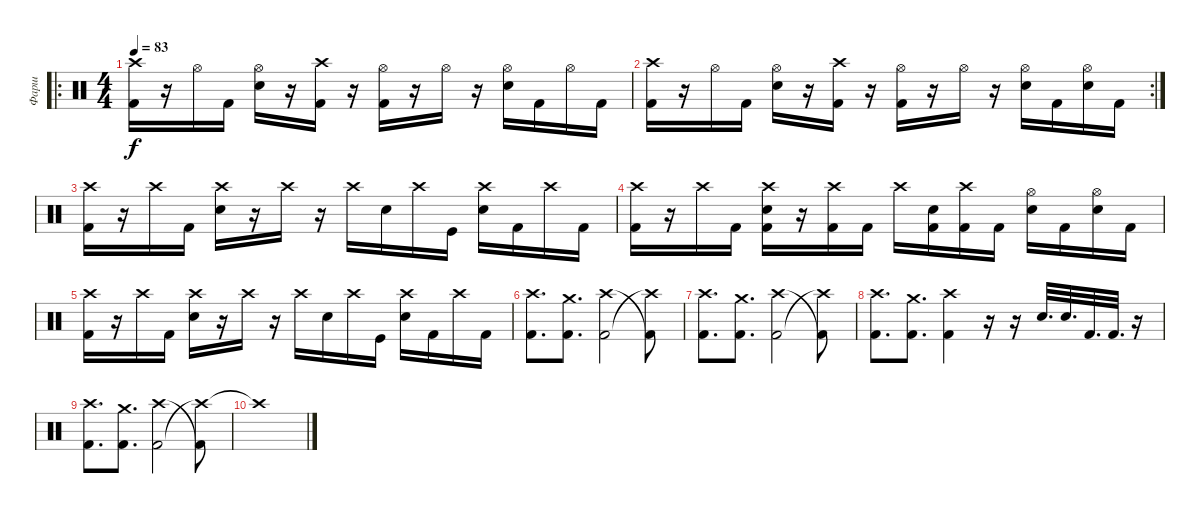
\track ("Фарш" "Фарш") {instrument percussion}
\staff {score}
\articulation defaults
\ro
\ts (4 4)
\tempo 83
\clef neutral
\ks c
("Crash high (hit)" "Kick (hit) 2").16{dy f} r.16 "Hi-Hat (open)".16 "Kick (hit) 2".16 ("Hi-Hat (open)" "Electric Snare (hit)").16 r.16 ("Crash high (hit)" "Kick (hit) 2").16 r.16 ("Hi-Hat (open)" "Kick (hit) 2").16 r.16 "Hi-Hat (open)".16 r.16 ("Hi-Hat (open)" "Electric Snare (hit)").16 "Kick (hit) 2".16 "Hi-Hat (open)".16 "Kick (hit) 2".16 |
\rc 2
("Crash high (hit)" "Kick (hit) 2").16 r.16 "Hi-Hat (open)".16 "Kick (hit) 2".16 ("Hi-Hat (open)" "Electric Snare (hit)").16 r.16 ("Crash high (hit)" "Kick (hit) 2").16 r.16 ("Hi-Hat (open)" "Kick (hit) 2").16 r.16 "Hi-Hat (open)".16 r.16 ("Hi-Hat (open)" "Electric Snare (hit)").16 "Kick (hit) 2".16 ("Hi-Hat (open)" "Electric Snare (hit)").16 "Kick (hit) 2".16 |
("Crash high (hit)" "Kick (hit) 2").16 r.16 "Crash high (hit)".16 "Kick (hit) 2".16 ("Crash high (hit)" "Electric Snare (hit)").16 r.16 "Crash high (hit)".16 r.16 "Crash high (hit)".16 "Electric Snare (hit)".16 "Crash high (hit)".16 "Kick (hit)".16 ("Crash high (hit)" "Electric Snare (hit)").16 "Kick (hit) 2".16 "Crash high (hit)".16 "Kick (hit) 2".16 |
("Crash high (hit)" "Kick (hit) 2").16 r.16 "Crash high (hit)".16 "Kick (hit) 2".16 ("Crash high (hit)" "Kick (hit) 2" "Electric Snare (hit)").16 r.16 ("Crash high (hit)" "Kick (hit) 2").16 "Kick (hit) 2".16 "Crash high (hit)".16 ("Kick (hit) 2" "Electric Snare (hit)").16 ("Crash high (hit)" "Kick (hit) 2").16 "Kick (hit) 2".16 ("Hi-Hat (open)" "Electric Snare (hit)").16 "Kick (hit) 2".16 ("Hi-Hat (open)" "Electric Snare (hit)").16 "Kick (hit) 2".16 |
("Crash high (hit)" "Kick (hit) 2").16 r.16 "Crash high (hit)".16 "Kick (hit) 2".16 ("Crash high (hit)" "Electric Snare (hit)").16 r.16 "Crash high (hit)".16 r.16 "Crash high (hit)".16 "Electric Snare (hit)".16 "Crash high (hit)".16 "Kick (hit)".16 ("Crash high (hit)" "Electric Snare (hit)").16 "Kick (hit) 2".16 "Crash high (hit)".16 "Kick (hit) 2".16 |
("Kick (hit) 2" "Crash high (hit)").8{d} ("Kick (hit) 2" "Crash medium (hit)").8{d} ("Kick (hit) 2" "Crash high (hit)").2 ("Crash high (hit)"{t} "Kick (hit) 2"{t}).8 |
("Kick (hit) 2" "Crash high (hit)").8{d} ("Kick (hit) 2" "Crash medium (hit)").8{d} ("Kick (hit) 2" "Crash high (hit)").2 ("Crash high (hit)"{t} "Kick (hit) 2"{t}).8 |
("Kick (hit) 2" "Crash high (hit)").8{d} ("Kick (hit) 2" "Crash medium (hit)").8{d} ("Kick (hit) 2" "Crash high (hit)").4 r.16 r.16 "Electric Snare (hit)".32{d} "Electric Snare (hit)".32{d} "Kick (hit) 2".32{d} "Kick (hit) 2".32{d} r.16 |
("Kick (hit) 2" "Crash high (hit)").8{d} ("Kick (hit) 2" "Crash medium (hit)").8{d} ("Kick (hit) 2" "Crash high (hit)").2 ("Crash high (hit)"{t} "Kick (hit) 2"{t}).8 |
"Crash high (hit)"{t}.1
